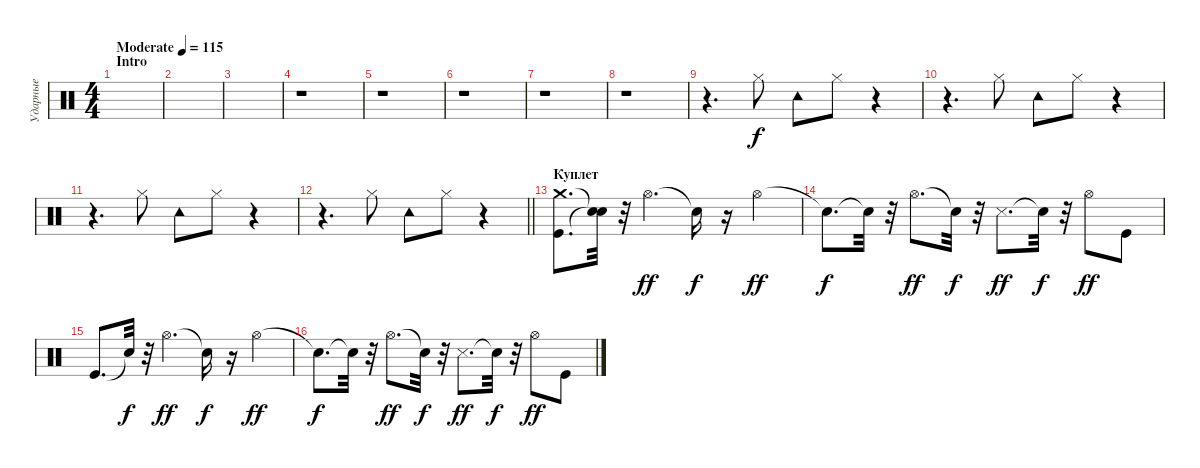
\track ("Ударные" "Ударные") {instrument percussion}
\staff {score}
\articulation defaults
\ts (4 4)
\section ("" "Intro")
\tempo (115 "Moderate")
\clef neutral
\ks c
|
|
|
r.1 |
r.1 |
r.1 |
r.1 |
r.1 |
r.4{d} "Hi-Hat (closed)".8 "Tambourine (hit)".8 "Hi-Hat (closed)".8 r.4 |
r.4{d} "Hi-Hat (closed)".8 "Tambourine (hit)".8 "Hi-Hat (closed)".8 r.4 |
r.4{d} "Hi-Hat (closed)".8 "Tambourine (hit)".8 "Hi-Hat (closed)".8 r.4 |
\barLineRight lightlight
r.4{d} "Hi-Hat (closed)".8 "Tambourine (hit)".8 "Hi-Hat (closed)".8 r.4 |
\section ("" "Куплет")
("Kick (hit)" "Crash medium (hit)").8{d} ("Snare (hit)"{t} "Snare (hit)"{t}).32{dy f} r.32 "Hi-Hat (open)".4{d dy ff} "Snare (hit)"{t}.16{dy f} r.16 "Hi-Hat (open)".4{dy ff} |
"Snare (hit)"{t}.8{d dy f} "Snare (hit)"{t}.32 r.32 "Hi-Hat (open)".8{d dy ff} "Snare (hit)"{t}.32{dy f} r.32 "Snare (side stick) 3".8{d dy ff} "Snare (hit)"{t}.32{dy f} r.32 "Hi-Hat (open)".8{dy ff} "Kick (hit)".8 |
"Kick (hit)".8{d} "Snare (hit)"{t}.32{dy f} r.32 "Hi-Hat (open)".4{d dy ff} "Snare (hit)"{t}.16{dy f} r.16 "Hi-Hat (open)".4{dy ff} |
"Snare (hit)"{t}.8{d dy f} "Snare (hit)"{t}.32 r.32 "Hi-Hat (open)".8{d dy ff} "Snare (hit)"{t}.32{dy f} r.32 "Snare (side stick) 3".8{d dy ff} "Snare (hit)"{t}.32{dy f} r.32 "Hi-Hat (open)".8{dy ff} "Kick (hit)".8
